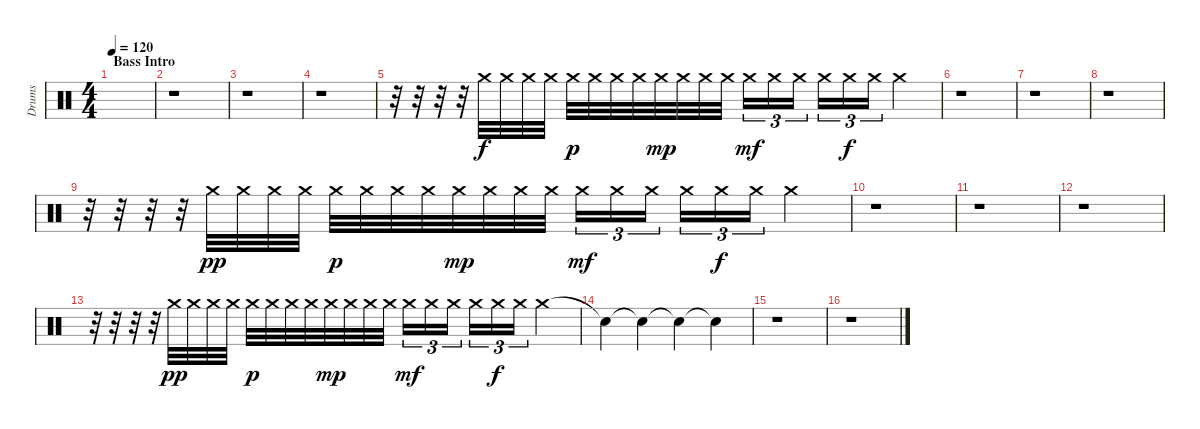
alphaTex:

\track ("Drums" "Drums") {instrument percussion}
\staff {score}
\articulation defaults
\ts (4 4)
\section ("" "Bass Intro")
\tempo 120
\clef neutral
\ks c
|
r.1 |
r.1 |
r.1 |
r.32 r.32 r.32 r.32 "Crash medium (hit)".32 "Crash medium (hit)".32 "Crash medium (hit)".32 "Crash medium (hit)".32 "Crash medium (hit)".32{dy p} "Crash medium (hit)".32 "Crash medium (hit)".32 "Crash medium (hit)".32 "Crash medium (hit)".32{dy mp} "Crash medium (hit)".32 "Crash medium (hit)".32 "Crash medium (hit)".32 "Crash medium (hit)".16{tu (3 2) dy mf} "Crash medium (hit)".16{tu (3 2)} "Crash medium (hit)".16{tu (3 2) beam splitsecondary} "Crash medium (hit)".16{tu (3 2)} "Crash medium (hit)".16{tu (3 2) dy f} "Crash medium (hit)".16{tu (3 2)} "Crash medium (hit)".4 |
r.1 |
r.1 |
r.1 |
r.32 r.32 r.32 r.32 "Crash medium (hit)".32{dy pp} "Crash medium (hit)".32 "Crash medium (hit)".32 "Crash medium (hit)".32 "Crash medium (hit)".32{dy p} "Crash medium (hit)".32 "Crash medium (hit)".32 "Crash medium (hit)".32 "Crash medium (hit)".32{dy mp} "Crash medium (hit)".32 "Crash medium (hit)".32 "Crash medium (hit)".32 "Crash medium (hit)".16{tu (3 2) dy mf} "Crash medium (hit)".16{tu (3 2)} "Crash medium (hit)".16{tu (3 2) beam splitsecondary} "Crash medium (hit)".16{tu (3 2)} "Crash medium (hit)".16{tu (3 2) dy f} "Crash medium (hit)".16{tu (3 2)} "Crash medium (hit)".4 |
r.1 |
r.1 |
r.1 |
r.32 r.32 r.32 r.32 "Crash medium (hit)".32{dy pp} "Crash medium (hit)".32 "Crash medium (hit)".32 "Crash medium (hit)".32 "Crash medium (hit)".32{dy p} "Crash medium (hit)".32 "Crash medium (hit)".32 "Crash medium (hit)".32 "Crash medium (hit)".32{dy mp} "Crash medium (hit)".32 "Crash medium (hit)".32 "Crash medium (hit)".32 "Crash medium (hit)".16{tu (3 2) dy mf} "Crash medium (hit)".16{tu (3 2)} "Crash medium (hit)".16{tu (3 2) beam splitsecondary} "Crash medium (hit)".16{tu (3 2)} "Crash medium (hit)".16{tu (3 2) dy f} "Crash medium (hit)".16{tu (3 2)} "Crash medium (hit)".4 |
"Snare (hit)"{t}.4 "Snare (hit)"{t}.4 "Snare (hit)"{t}.4 "Snare (hit)"{t}.4 |
r.1 |
r.1
